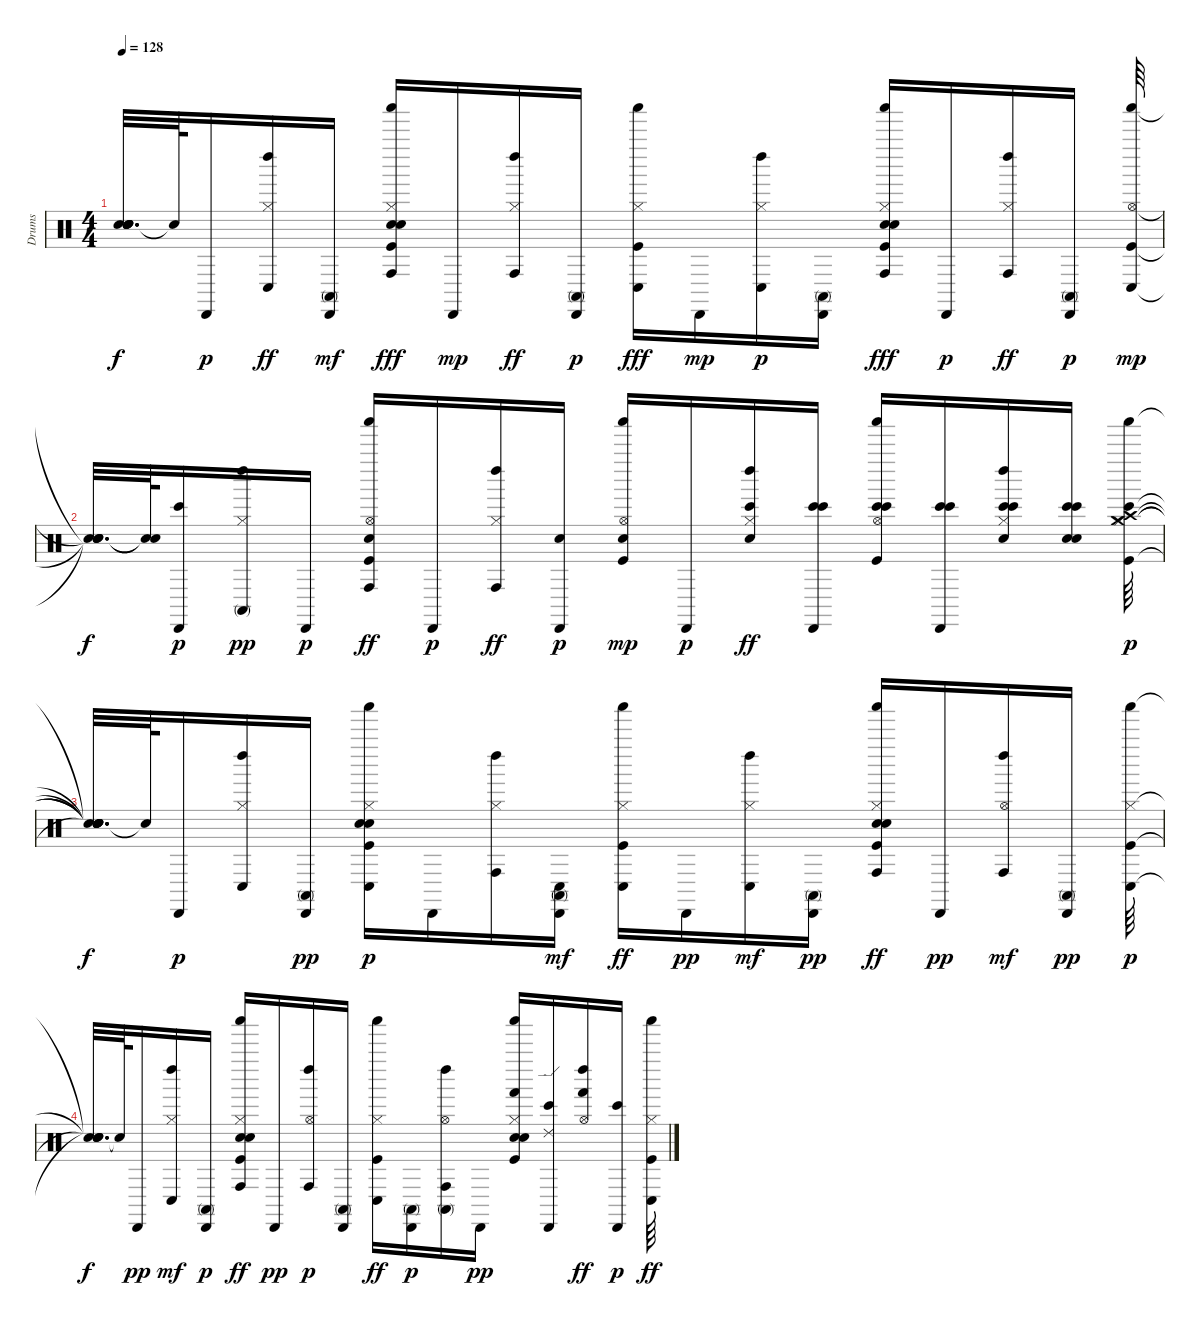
\track ("Drums" "Drums") {instrument percussion}
\staff {score}
\articulation defaults
\ts (4 4)
\tempo 128
\clef neutral
\ks c
("Snare (hit)"{t} "Snare (hit)"{t} "Snare (hit)"{t} "Snare (hit)"{t} "Snare (hit)"{t}).32{d dy f} "Snare (hit)"{t}.64 "Cabasa (hit)".16{dy p} ("Hi-Hat (closed)" "Left Maraca (hit)" "Conga low (hit)").16{dy ff} ("Cabasa (hit)" "Conga high (mute)").16{dy mf} ("Kick (hit)" "Electric Snare (hit)" "Hand Clap (hit)" "Hi-Hat (closed)" "Shaker (hit)" "Conga high (hit)").16{dy fff} "Cabasa (hit)".16{dy mp} ("Hi-Hat (closed)" "Left Maraca (hit)" "Conga high (hit)").16{dy ff} ("Cabasa (hit)" "Conga high (mute)").16{dy p} ("Kick (hit)" "Hi-Hat (closed)" "Shaker (hit)" "Conga low (hit)").16{dy fff} "Cabasa (hit)".16{dy mp} ("Hi-Hat (closed)" "Left Maraca (hit)" "Conga low (hit)").16{dy p} ("Cabasa (hit)" "Conga high (mute)").16 ("Kick (hit)" "Electric Snare (hit)" "Hand Clap (hit)" "Hi-Hat (closed)" "Shaker (hit)" "Conga high (hit)").16{dy fff} "Cabasa (hit)".16{dy p} ("Hi-Hat (closed)" "Left Maraca (hit)" "Conga high (hit)").16{dy ff} ("Cabasa (hit)" "Conga high (mute)").16{dy p} ("Kick (hit)" "Hi-Hat (open)" "Shaker (hit)" "Conga low (hit)").64{dy mp} |
("Snare (hit)"{t} "Snare (hit)"{t} "Snare (hit)"{t} "Snare (hit)"{t}).32{d dy f} ("Snare (hit)"{t} "Snare (hit)"{t}).64 ("Cabasa (hit)" "Bongo High (hit)").16{dy p} ("Hi-Hat (closed)" "Left Maraca (hit)" "Conga high (mute)").16{dy pp} "Cabasa (hit)".16{dy p} ("Kick (hit)" "Electric Snare (hit)" "Hi-Hat (open)" "Shaker (hit)" "Conga high (hit)").16{dy ff} "Cabasa (hit)".16{dy p} ("Hi-Hat (closed)" "Left Maraca (hit)" "Conga high (hit)").16{dy ff} ("Electric Snare (hit)" "Cabasa (hit)").16{dy p} ("Kick (hit)" "Electric Snare (hit)" "Hi-Hat (open)" "Shaker (hit)").16{dy mp} "Cabasa (hit)".16{dy p} ("Electric Snare (hit)" "Hi-Hat (closed)" "Left Maraca (hit)" "Bongo High (hit)").16{dy ff} ("Bongo High (hit)" "Cabasa (hit)" "Bongo High (hit)").16 ("Bongo High (hit)" "Kick (hit)" "Hi-Hat (open)" "Shaker (hit)" "Bongo High (hit)").16 ("Bongo High (hit)" "Cabasa (hit)" "Bongo High (hit)").16 ("Bongo High (hit)" "Electric Snare (hit)" "Hi-Hat (closed)" "Left Maraca (hit)" "Bongo High (hit)").16 ("Bongo High (hit)" "Electric Snare (hit)" "Snare (hit) 2" "Bongo High (hit)").16 ("Bongo High (hit)" "Kick (hit)" "Hi-Hat (closed)" "Crash medium (hit)" "Crash high (hit)" "Shaker (hit)").64{dy p} |
("Snare (hit)"{t} "Snare (hit)"{t} "Snare (hit)"{t} "Snare (hit)"{t} "Snare (hit)"{t} "Snare (hit)"{t}).32{d dy f} "Snare (hit)"{t}.64 "Cabasa (hit)".16{dy p} ("Hi-Hat (closed)" "Left Maraca (hit)" "Conga low (hit)").16 ("Cabasa (hit)" "Conga high (mute)").16{dy pp} ("Kick (hit)" "Snare (hit) 2" "Hand Clap (hit)" "Hi-Hat (closed)" "Shaker (hit)" "Conga low (hit)").16{dy p} "Cabasa (hit)".16 ("Hi-Hat (closed)" "Left Maraca (hit)" "Conga high (hit)").16 ("Cabasa (hit)" "Conga high (mute)" "Conga low (hit)").16{dy mf} ("Kick (hit)" "Hi-Hat (closed)" "Shaker (hit)" "Conga low (hit)").16{dy ff} "Cabasa (hit)".16{dy pp} ("Hi-Hat (closed)" "Left Maraca (hit)" "Conga low (hit)").16{dy mf} ("Cabasa (hit)" "Conga high (mute)").16{dy pp} ("Kick (hit)" "Snare (hit) 2" "Hand Clap (hit)" "Hi-Hat (closed)" "Shaker (hit)" "Conga high (hit)").16{dy ff} "Cabasa (hit)".16{dy pp} ("Hi-Hat (open)" "Left Maraca (hit)" "Conga high (hit)").16{dy mf} ("Cabasa (hit)" "Conga high (mute)").16{dy pp} ("Kick (hit)" "Hi-Hat (closed)" "Shaker (hit)" "Conga low (hit)").64{dy p} |
("Snare (hit)"{t} "Snare (hit)"{t} "Snare (hit)"{t} "Snare (hit)"{t}).32{d dy f} "Snare (hit)"{t}.64 "Cabasa (hit)".16{dy pp} ("Hi-Hat (closed)" "Left Maraca (hit)" "Conga low (hit)").16{dy mf} ("Cabasa (hit)" "Conga high (mute)").16{dy p} ("Kick (hit)" "Snare (hit) 2" "Hand Clap (hit)" "Hi-Hat (closed)" "Shaker (hit)" "Conga high (hit)").16{dy ff} "Cabasa (hit)".16{dy pp} ("Hi-Hat (open)" "Left Maraca (hit)" "Conga high (hit)").16{dy p} ("Cabasa (hit)" "Conga high (mute)").16 ("Kick (hit)" "Hi-Hat (closed)" "Shaker (hit)" "Conga low (hit)").16{dy ff} ("Cabasa (hit)" "Conga high (mute)").16{dy p} ("Hi-Hat (open)" "Left Maraca (hit)" "Conga high (hit)" "Conga high (mute)").16 "Cabasa (hit)".16{dy pp} ("Kick (hit)" "Snare (hit) 2" "Hand Clap (hit)" "Hi-Hat (closed)" "Shaker (hit)" "Hand (hit)").16 ("Cabasa (hit)" "Bongo High (hit)" "Ride (edge) 2").16 ("Hi-Hat (open)" "Left Maraca (hit)" "Hand (hit)").16{dy ff} ("Cabasa (hit)" "Bongo High (hit)").16{dy p} ("Kick (hit)" "Hi-Hat (closed)" "Shaker (hit)" "Conga low (hit)").64{dy ff}
